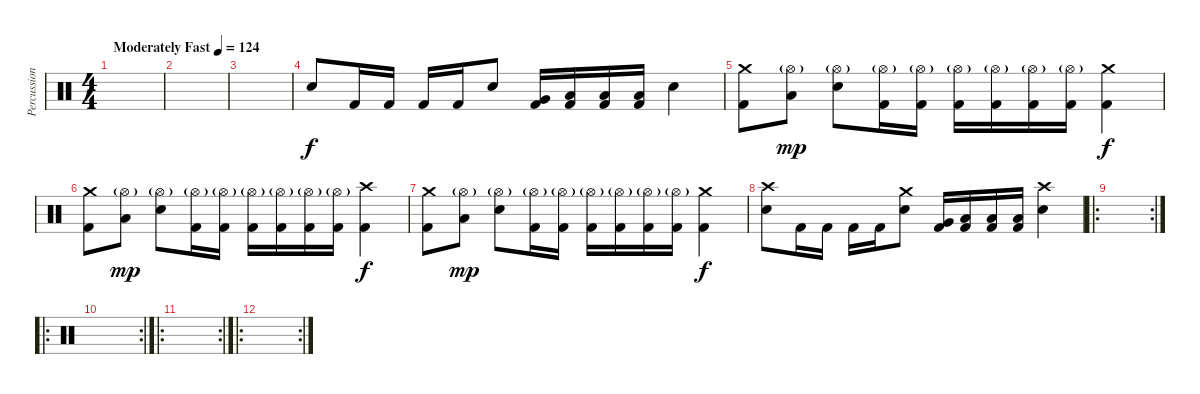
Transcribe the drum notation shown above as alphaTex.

\track ("Percussions" "Percussion") {instrument percussion}
\staff {score}
\articulation defaults
\ts (4 4)
\tempo (124 "Moderately Fast")
\clef neutral
\ks c
|
|
|
"Electric Snare (hit)".8 "Kick (hit) 2".16 "Kick (hit) 2".16 "Kick (hit) 2".16 "Kick (hit) 2".16 "Electric Snare (hit)".8 ("Very Low Tom (hit)" "Kick (hit) 2").16 ("Low Floor Tom (hit)" "Kick (hit) 2").16 ("Low Tom (hit)" "Kick (hit) 2").16 ("Low Floor Tom (hit)" "Kick (hit) 2").16 "Electric Snare (hit)".4 |
("Crash medium (hit)" "Kick (hit) 2").8 ("Hi-Hat (open)"{g} "Low Floor Tom (hit)").8{dy mp} ("Hi-Hat (open)"{g} "Electric Snare (hit)").8 ("Hi-Hat (open)"{g} "Kick (hit) 2").16 ("Hi-Hat (open)"{g} "Kick (hit) 2").16 ("Hi-Hat (open)"{g} "Kick (hit) 2").16 ("Hi-Hat (open)"{g} "Kick (hit) 2").16 ("Hi-Hat (open)"{g} "Kick (hit) 2").16 ("Hi-Hat (open)"{g} "Kick (hit) 2").16 ("Crash medium (hit)" "Kick (hit) 2").4{dy f} |
("Crash medium (hit)" "Kick (hit) 2").8 ("Hi-Hat (open)"{g} "Low Floor Tom (hit)").8{dy mp} ("Hi-Hat (open)"{g} "Electric Snare (hit)").8 ("Hi-Hat (open)"{g} "Kick (hit) 2").16 ("Hi-Hat (open)"{g} "Kick (hit) 2").16 ("Hi-Hat (open)"{g} "Kick (hit) 2").16 ("Hi-Hat (open)"{g} "Kick (hit) 2").16 ("Hi-Hat (open)"{g} "Kick (hit) 2").16 ("Hi-Hat (open)"{g} "Kick (hit) 2").16 ("Crash high (hit)" "Kick (hit) 2").4{dy f} |
("Crash medium (hit)" "Kick (hit) 2").8 ("Hi-Hat (open)"{g} "Low Floor Tom (hit)").8{dy mp} ("Hi-Hat (open)"{g} "Electric Snare (hit)").8 ("Hi-Hat (open)"{g} "Kick (hit) 2").16 ("Hi-Hat (open)"{g} "Kick (hit) 2").16 ("Hi-Hat (open)"{g} "Kick (hit) 2").16 ("Hi-Hat (open)"{g} "Kick (hit) 2").16 ("Hi-Hat (open)"{g} "Kick (hit) 2").16 ("Hi-Hat (open)"{g} "Kick (hit) 2").16 ("Crash medium (hit)" "Kick (hit) 2").4{dy f} |
("Crash high (hit)" "Electric Snare (hit)").8 "Kick (hit) 2".16 "Kick (hit) 2".16 "Kick (hit) 2".16 "Kick (hit) 2".16 ("Crash medium (hit)" "Electric Snare (hit)").8 ("Very Low Tom (hit)" "Kick (hit) 2").16 ("Low Floor Tom (hit)" "Kick (hit) 2").16 ("Low Tom (hit)" "Kick (hit) 2").16 ("Low Floor Tom (hit)" "Kick (hit) 2").16 ("Crash high (hit)" "Electric Snare (hit)").4 |
\ro
\rc 2
|
\ro
\rc 2
|
\ro
\rc 2
|
\ro
\rc 2
